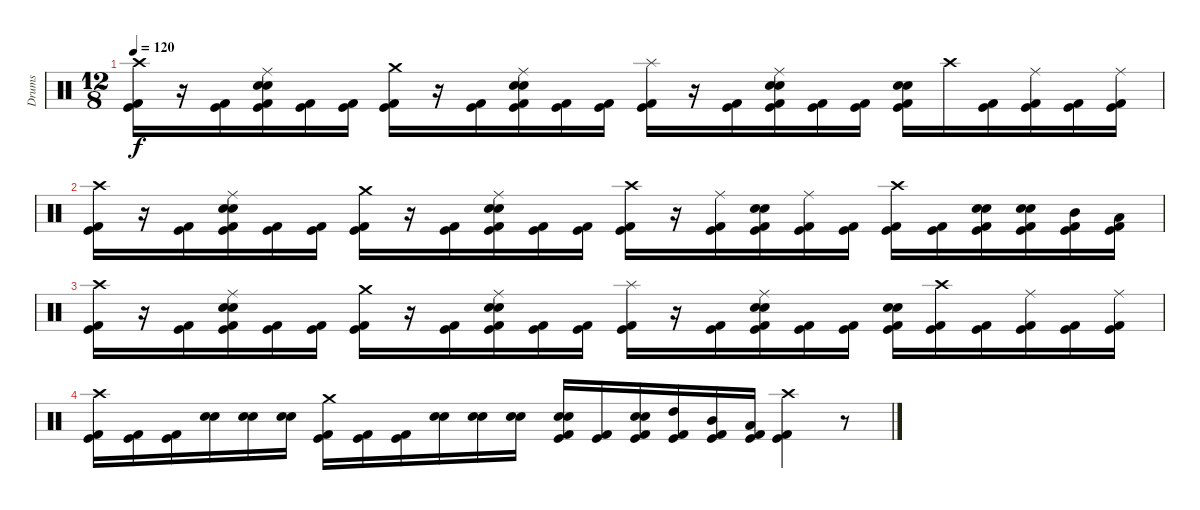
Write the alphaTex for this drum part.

\track ("Drums" "Drums") {instrument percussion}
\staff {score}
\articulation defaults
\ts (12 8)
\tempo 120
\clef neutral
\ks c
("Crash high (hit)" "Kick (hit) 2" "Kick (hit)").16{dy f} r.16 ("Kick (hit) 2" "Kick (hit)").16 ("Ride (middle)" "Electric Snare (hit)" "Snare (hit) 2" "Kick (hit) 2" "Kick (hit)").16 ("Kick (hit) 2" "Kick (hit)").16 ("Kick (hit) 2" "Kick (hit)").16 ("Crash medium (hit)" "Kick (hit) 2" "Kick (hit)").16 r.16 ("Kick (hit) 2" "Kick (hit)").16 ("Ride (middle)" "Electric Snare (hit)" "Snare (hit) 2" "Kick (hit) 2" "Kick (hit)").16 ("Kick (hit) 2" "Kick (hit)").16 ("Kick (hit) 2" "Kick (hit)").16 ("Splash (hit)" "Kick (hit) 2" "Kick (hit)").16 r.16 ("Kick (hit) 2" "Kick (hit)").16 ("Ride (middle)" "Electric Snare (hit)" "Snare (hit) 2" "Kick (hit) 2" "Kick (hit)").16 ("Kick (hit) 2" "Kick (hit)").16 ("Kick (hit) 2" "Kick (hit)").16 ("Electric Snare (hit)" "Snare (hit) 2" "Kick (hit) 2" "Kick (hit)").16 "Crash high (hit)".16 ("Kick (hit) 2" "Kick (hit)").16 ("Ride (middle)" "Kick (hit) 2" "Kick (hit)").16 ("Kick (hit) 2" "Kick (hit)").16 ("Ride (middle)" "Kick (hit) 2" "Kick (hit)").16 |
("Crash high (hit)" "Kick (hit) 2" "Kick (hit)").16 r.16 ("Kick (hit) 2" "Kick (hit)").16 ("Ride (middle)" "Electric Snare (hit)" "Snare (hit) 2" "Kick (hit) 2" "Kick (hit)").16 ("Kick (hit) 2" "Kick (hit)").16 ("Kick (hit) 2" "Kick (hit)").16 ("Crash medium (hit)" "Kick (hit) 2" "Kick (hit)").16 r.16 ("Kick (hit) 2" "Kick (hit)").16 ("Ride (middle)" "Electric Snare (hit)" "Snare (hit) 2" "Kick (hit) 2" "Kick (hit)").16 ("Kick (hit) 2" "Kick (hit)").16 ("Kick (hit) 2" "Kick (hit)").16 ("Crash high (hit)" "Kick (hit) 2" "Kick (hit)").16 r.16 ("Ride (middle)" "Kick (hit) 2" "Kick (hit)").16 ("Electric Snare (hit)" "Snare (hit) 2" "Kick (hit) 2" "Kick (hit)").16 ("Ride (middle)" "Kick (hit) 2" "Kick (hit)").16 ("Kick (hit) 2" "Kick (hit)").16 ("Crash high (hit)" "Kick (hit) 2" "Kick (hit)").16 ("Kick (hit) 2" "Kick (hit)").16 ("Electric Snare (hit)" "Snare (hit) 2" "Kick (hit) 2" "Kick (hit)").16 ("Electric Snare (hit)" "Snare (hit) 2" "Kick (hit) 2" "Kick (hit)").16 ("Mid Tom (hit)" "Kick (hit) 2" "Kick (hit)").16 ("Low Tom (hit)" "Kick (hit) 2" "Kick (hit)").16 |
("Crash high (hit)" "Kick (hit) 2" "Kick (hit)").16 r.16 ("Kick (hit) 2" "Kick (hit)").16 ("Ride (middle)" "Electric Snare (hit)" "Snare (hit) 2" "Kick (hit) 2" "Kick (hit)").16 ("Kick (hit) 2" "Kick (hit)").16 ("Kick (hit) 2" "Kick (hit)").16 ("Crash medium (hit)" "Kick (hit) 2" "Kick (hit)").16 r.16 ("Kick (hit) 2" "Kick (hit)").16 ("Ride (middle)" "Electric Snare (hit)" "Snare (hit) 2" "Kick (hit) 2" "Kick (hit)").16 ("Kick (hit) 2" "Kick (hit)").16 ("Kick (hit) 2" "Kick (hit)").16 ("Splash (hit)" "Kick (hit) 2" "Kick (hit)").16 r.16 ("Kick (hit) 2" "Kick (hit)").16 ("Ride (middle)" "Electric Snare (hit)" "Snare (hit) 2" "Kick (hit) 2" "Kick (hit)").16 ("Kick (hit) 2" "Kick (hit)").16 ("Kick (hit) 2" "Kick (hit)").16 ("Electric Snare (hit)" "Snare (hit) 2" "Kick (hit) 2" "Kick (hit)").16 ("Crash high (hit)" "Kick (hit) 2" "Kick (hit)").16 ("Kick (hit) 2" "Kick (hit)").16 ("Ride (middle)" "Kick (hit) 2" "Kick (hit)").16 ("Kick (hit) 2" "Kick (hit)").16 ("Ride (middle)" "Kick (hit) 2" "Kick (hit)").16 |
("Crash high (hit)" "Kick (hit) 2" "Kick (hit)").16 ("Kick (hit) 2" "Kick (hit)").16 ("Kick (hit) 2" "Kick (hit)").16 ("Electric Snare (hit)" "Snare (hit) 2").16 ("Electric Snare (hit)" "Snare (hit) 2").16 ("Electric Snare (hit)" "Snare (hit) 2").16 ("Crash medium (hit)" "Kick (hit) 2" "Kick (hit)").16 ("Kick (hit) 2" "Kick (hit)").16 ("Kick (hit) 2" "Kick (hit)").16 ("Electric Snare (hit)" "Snare (hit) 2").16 ("Electric Snare (hit)" "Snare (hit) 2").16 ("Electric Snare (hit)" "Snare (hit) 2").16 ("Electric Snare (hit)" "Snare (hit) 2" "Kick (hit) 2" "Kick (hit)").16 ("Kick (hit) 2" "Kick (hit)").16 ("Electric Snare (hit)" "Snare (hit) 2" "Kick (hit) 2" "Kick (hit)").16 ("High Tom (hit)" "Kick (hit) 2" "Kick (hit)").16 ("Mid Tom (hit)" "Kick (hit) 2" "Kick (hit)").16 ("Low Tom (hit)" "Kick (hit) 2" "Kick (hit)").16 ("Crash high (hit)" "Kick (hit) 2" "Kick (hit)").4 r.8
